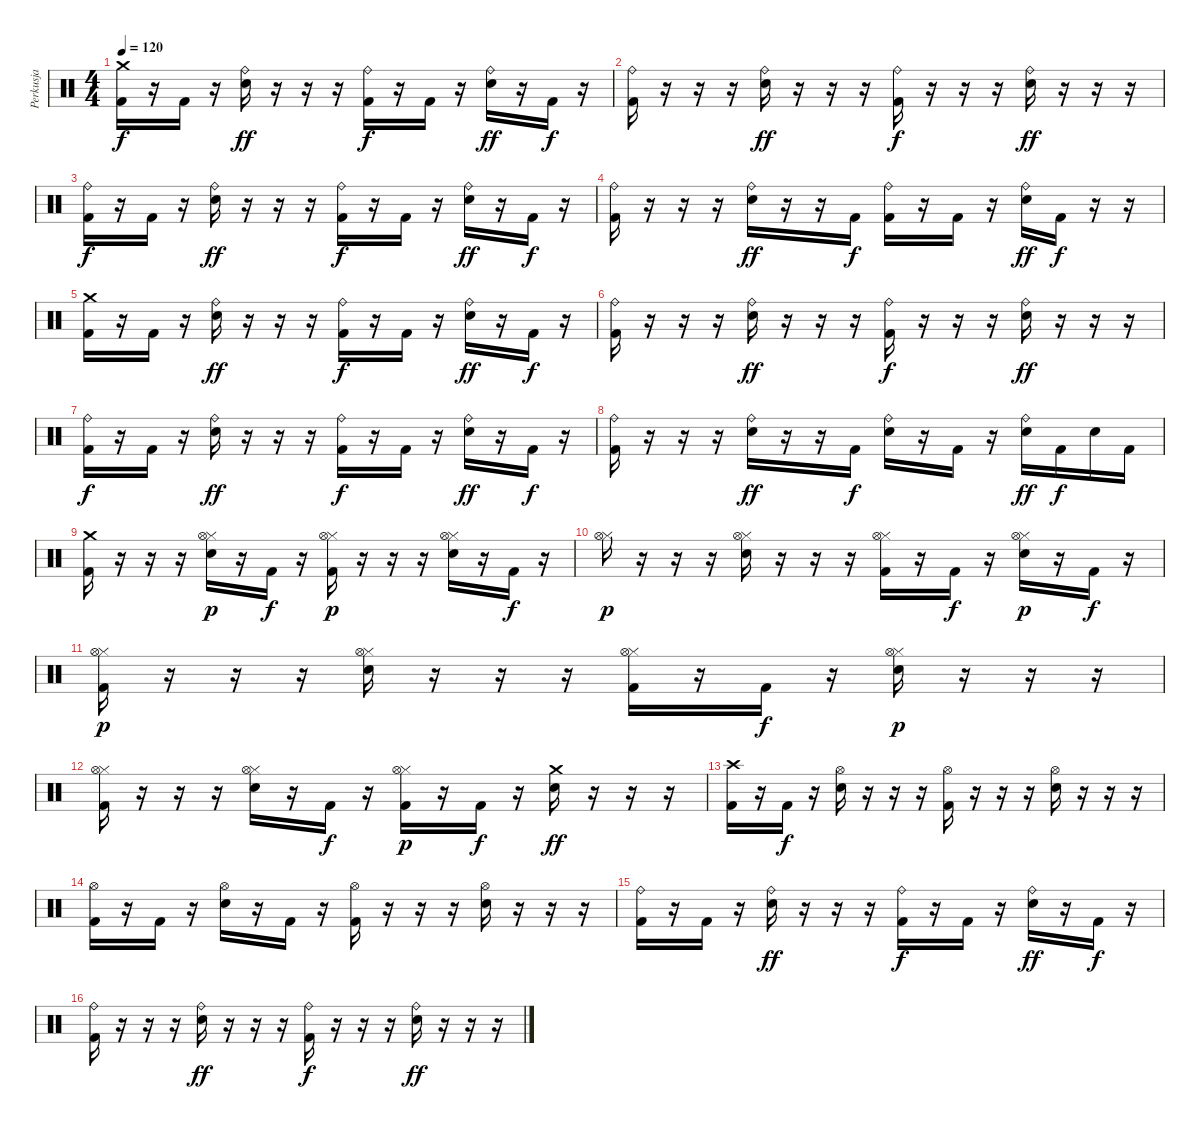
\track ("Perkusja" "Perkusja") {instrument percussion}
\staff {score}
\articulation defaults
\ts (4 4)
\tempo 120
\clef neutral
\ks c
("Kick (hit) 2" "Crash medium (hit)").16{dy f} r.16 "Kick (hit) 2".16 r.16 ("Electric Snare (hit)" "Ride (bell)").16{dy ff} r.16 r.16 r.16 ("Kick (hit) 2" "Ride (bell)").16{dy f} r.16 "Kick (hit) 2".16 r.16 ("Electric Snare (hit)" "Ride (bell)").16{dy ff} r.16 "Kick (hit) 2".16{dy f} r.16 |
("Kick (hit) 2" "Ride (bell)").16 r.16 r.16 r.16 ("Electric Snare (hit)" "Ride (bell)").16{dy ff} r.16 r.16 r.16 ("Kick (hit) 2" "Ride (bell)").16{dy f} r.16 r.16 r.16 ("Electric Snare (hit)" "Ride (bell)").16{dy ff} r.16 r.16 r.16 |
("Kick (hit) 2" "Ride (bell)").16{dy f} r.16 "Kick (hit) 2".16 r.16 ("Electric Snare (hit)" "Ride (bell)").16{dy ff} r.16 r.16 r.16 ("Kick (hit) 2" "Ride (bell)").16{dy f} r.16 "Kick (hit) 2".16 r.16 ("Electric Snare (hit)" "Ride (bell)").16{dy ff} r.16 "Kick (hit) 2".16{dy f} r.16 |
("Kick (hit) 2" "Ride (bell)").16 r.16 r.16 r.16 ("Electric Snare (hit)" "Ride (bell)").16{dy ff} r.16 r.16 "Kick (hit) 2".16{dy f} ("Kick (hit) 2" "Ride (bell)").16 r.16 "Kick (hit) 2".16 r.16 ("Electric Snare (hit)" "Ride (bell)").16{dy ff} "Kick (hit) 2".16{dy f} r.16 r.16 |
("Kick (hit) 2" "Crash medium (hit)").16 r.16 "Kick (hit) 2".16 r.16 ("Electric Snare (hit)" "Ride (bell)").16{dy ff} r.16 r.16 r.16 ("Kick (hit) 2" "Ride (bell)").16{dy f} r.16 "Kick (hit) 2".16 r.16 ("Electric Snare (hit)" "Ride (bell)").16{dy ff} r.16 "Kick (hit) 2".16{dy f} r.16 |
("Kick (hit) 2" "Ride (bell)").16 r.16 r.16 r.16 ("Electric Snare (hit)" "Ride (bell)").16{dy ff} r.16 r.16 r.16 ("Kick (hit) 2" "Ride (bell)").16{dy f} r.16 r.16 r.16 ("Electric Snare (hit)" "Ride (bell)").16{dy ff} r.16 r.16 r.16 |
("Kick (hit) 2" "Ride (bell)").16{dy f} r.16 "Kick (hit) 2".16 r.16 ("Electric Snare (hit)" "Ride (bell)").16{dy ff} r.16 r.16 r.16 ("Kick (hit) 2" "Ride (bell)").16{dy f} r.16 "Kick (hit) 2".16 r.16 ("Electric Snare (hit)" "Ride (bell)").16{dy ff} r.16 "Kick (hit) 2".16{dy f} r.16 |
("Kick (hit) 2" "Ride (bell)").16 r.16 r.16 r.16 ("Electric Snare (hit)" "Ride (bell)").16{dy ff} r.16 r.16 "Kick (hit) 2".16{dy f} ("Electric Snare (hit)" "Ride (bell)").16 r.16 "Kick (hit) 2".16 r.16 ("Electric Snare (hit)" "Ride (bell)").16{dy ff} "Kick (hit) 2".16{dy f} "Electric Snare (hit)".16 "Kick (hit) 2".16 |
("Kick (hit) 2" "Crash medium (hit)").16 r.16 r.16 r.16 ("Electric Snare (hit)" "Hi-Hat (closed)" "Hi-Hat (open)").16{dy p} r.16 "Kick (hit) 2".16{dy f} r.16 ("Kick (hit) 2" "Hi-Hat (closed)" "Hi-Hat (open)").16{dy p} r.16 r.16 r.16 ("Electric Snare (hit)" "Hi-Hat (closed)" "Hi-Hat (open)").16 r.16 "Kick (hit) 2".16{dy f} r.16 |
("Hi-Hat (closed)" "Hi-Hat (open)").16{dy p} r.16 r.16 r.16 ("Electric Snare (hit)" "Hi-Hat (closed)" "Hi-Hat (open)").16 r.16 r.16 r.16 ("Kick (hit) 2" "Hi-Hat (closed)" "Hi-Hat (open)").16 r.16 "Kick (hit) 2".16{dy f} r.16 ("Electric Snare (hit)" "Hi-Hat (closed)" "Hi-Hat (open)").16{dy p} r.16 "Kick (hit) 2".16{dy f} r.16 |
("Kick (hit) 2" "Hi-Hat (closed)" "Hi-Hat (open)").16{dy p} r.16 r.16 r.16 ("Electric Snare (hit)" "Hi-Hat (closed)" "Hi-Hat (open)").16 r.16 r.16 r.16 ("Kick (hit) 2" "Hi-Hat (closed)" "Hi-Hat (open)").16 r.16 "Kick (hit) 2".16{dy f} r.16 ("Electric Snare (hit)" "Hi-Hat (closed)" "Hi-Hat (open)").16{dy p} r.16 r.16 r.16 |
("Kick (hit) 2" "Hi-Hat (closed)" "Hi-Hat (open)").16 r.16 r.16 r.16 ("Electric Snare (hit)" "Hi-Hat (closed)" "Hi-Hat (open)").16 r.16 "Kick (hit) 2".16{dy f} r.16 ("Kick (hit) 2" "Hi-Hat (closed)" "Hi-Hat (open)").16{dy p} r.16 "Kick (hit) 2".16{dy f} r.16 ("Electric Snare (hit)" "Crash medium (hit)").16{dy ff} r.16 r.16 r.16 |
("Kick (hit) 2" "Crash high (hit)").16 r.16 "Kick (hit) 2".16{dy f} r.16 ("Electric Snare (hit)" "Hi-Hat (open)").16 r.16 r.16 r.16 ("Kick (hit) 2" "Hi-Hat (open)").16 r.16 r.16 r.16 ("Electric Snare (hit)" "Hi-Hat (open)").16 r.16 r.16 r.16 |
("Kick (hit) 2" "Hi-Hat (open)").16 r.16 "Kick (hit) 2".16 r.16 ("Electric Snare (hit)" "Hi-Hat (open)").16 r.16 "Kick (hit) 2".16 r.16 ("Kick (hit) 2" "Hi-Hat (open)").16 r.16 r.16 r.16 ("Electric Snare (hit)" "Hi-Hat (open)").16 r.16 r.16 r.16 |
("Kick (hit) 2" "Ride (bell)").16 r.16 "Kick (hit) 2".16 r.16 ("Electric Snare (hit)" "Ride (bell)").16{dy ff} r.16 r.16 r.16 ("Kick (hit) 2" "Ride (bell)").16{dy f} r.16 "Kick (hit) 2".16 r.16 ("Electric Snare (hit)" "Ride (bell)").16{dy ff} r.16 "Kick (hit) 2".16{dy f} r.16 |
("Kick (hit) 2" "Ride (bell)").16 r.16 r.16 r.16 ("Electric Snare (hit)" "Ride (bell)").16{dy ff} r.16 r.16 r.16 ("Kick (hit) 2" "Ride (bell)").16{dy f} r.16 r.16 r.16 ("Electric Snare (hit)" "Ride (bell)").16{dy ff} r.16 r.16 r.16
